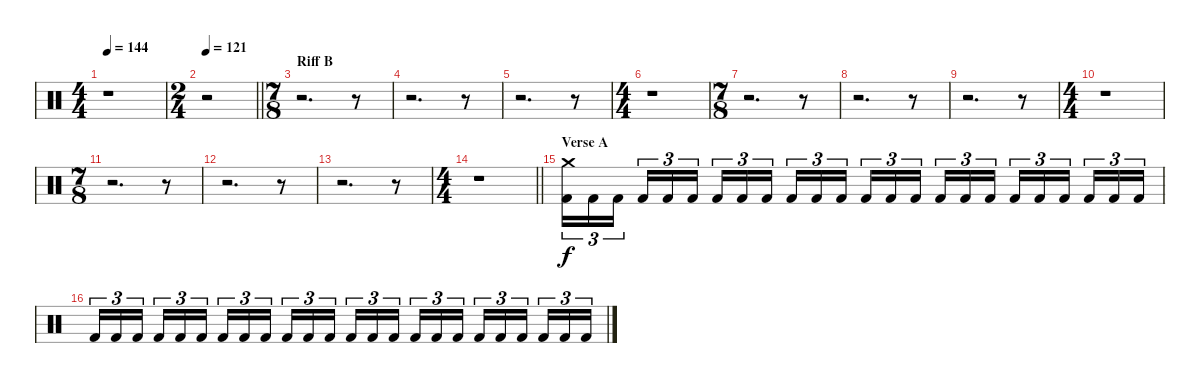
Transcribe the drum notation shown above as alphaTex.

\track "" {instrument percussion}
\staff {score}
\articulation defaults
\ts (4 4)
\tempo 144
\clef neutral
\ks c
r.1{dy f} |
\ts (2 4)
\tempo 121
\barLineRight lightlight
r.2 |
\ts (7 8)
\section ("" "Riff B")
r.2{d} r.8 |
r.2{d} r.8 |
r.2{d} r.8 |
\ts (4 4)
r.1 |
\ts (7 8)
r.2{d} r.8 |
r.2{d} r.8 |
r.2{d} r.8 |
\ts (4 4)
r.1 |
\ts (7 8)
r.2{d} r.8 |
r.2{d} r.8 |
r.2{d} r.8 |
\ts (4 4)
\barLineRight lightlight
r.1 |
\section ("" "Verse A")
("Crash medium (hit)" "Kick (hit) 2").16{tu (3 2)} "Kick (hit) 2".16{tu (3 2)} "Kick (hit) 2".16{tu (3 2) beam splitsecondary} "Kick (hit) 2".16{tu (3 2)} "Kick (hit) 2".16{tu (3 2)} "Kick (hit) 2".16{tu (3 2)} "Kick (hit) 2".16{tu (3 2)} "Kick (hit) 2".16{tu (3 2)} "Kick (hit) 2".16{tu (3 2) beam splitsecondary} "Kick (hit) 2".16{tu (3 2)} "Kick (hit) 2".16{tu (3 2)} "Kick (hit) 2".16{tu (3 2)} "Kick (hit) 2".16{tu (3 2)} "Kick (hit) 2".16{tu (3 2)} "Kick (hit) 2".16{tu (3 2) beam splitsecondary} "Kick (hit) 2".16{tu (3 2)} "Kick (hit) 2".16{tu (3 2)} "Kick (hit) 2".16{tu (3 2)} "Kick (hit) 2".16{tu (3 2)} "Kick (hit) 2".16{tu (3 2)} "Kick (hit) 2".16{tu (3 2) beam splitsecondary} "Kick (hit) 2".16{tu (3 2)} "Kick (hit) 2".16{tu (3 2)} "Kick (hit) 2".16{tu (3 2)} |
"Kick (hit) 2".16{tu (3 2)} "Kick (hit) 2".16{tu (3 2)} "Kick (hit) 2".16{tu (3 2) beam splitsecondary} "Kick (hit) 2".16{tu (3 2)} "Kick (hit) 2".16{tu (3 2)} "Kick (hit) 2".16{tu (3 2)} "Kick (hit) 2".16{tu (3 2)} "Kick (hit) 2".16{tu (3 2)} "Kick (hit) 2".16{tu (3 2) beam splitsecondary} "Kick (hit) 2".16{tu (3 2)} "Kick (hit) 2".16{tu (3 2)} "Kick (hit) 2".16{tu (3 2)} "Kick (hit) 2".16{tu (3 2)} "Kick (hit) 2".16{tu (3 2)} "Kick (hit) 2".16{tu (3 2) beam splitsecondary} "Kick (hit) 2".16{tu (3 2)} "Kick (hit) 2".16{tu (3 2)} "Kick (hit) 2".16{tu (3 2)} "Kick (hit) 2".16{tu (3 2)} "Kick (hit) 2".16{tu (3 2)} "Kick (hit) 2".16{tu (3 2) beam splitsecondary} "Kick (hit) 2".16{tu (3 2)} "Kick (hit) 2".16{tu (3 2)} "Kick (hit) 2".16{tu (3 2)}
